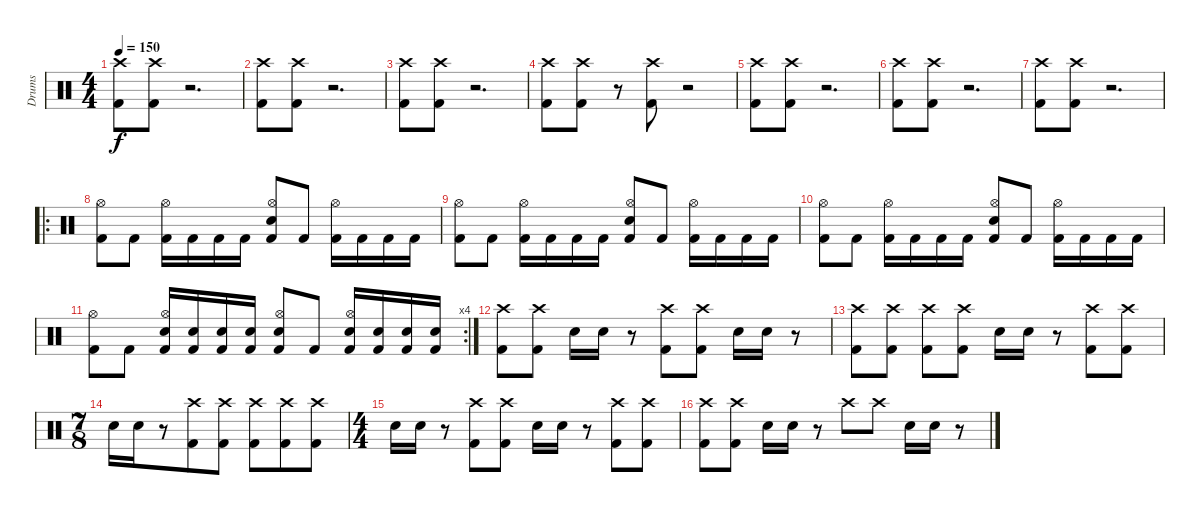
\track ("Drums" "Drums") {instrument percussion}
\staff {score}
\articulation defaults
\ts (4 4)
\tempo 150
\clef neutral
\ks c
("Crash high (hit)" "Kick (hit) 2").8{dy f} ("Crash high (hit)" "Kick (hit) 2").8 r.2{d} |
("Crash high (hit)" "Kick (hit) 2").8 ("Crash high (hit)" "Kick (hit) 2").8 r.2{d} |
("Crash high (hit)" "Kick (hit) 2").8 ("Crash high (hit)" "Kick (hit) 2").8 r.2{d} |
("Crash high (hit)" "Kick (hit) 2").8 ("Crash high (hit)" "Kick (hit) 2").8 r.8 ("Crash high (hit)" "Kick (hit) 2").8 r.2 |
("Crash high (hit)" "Kick (hit) 2").8 ("Crash high (hit)" "Kick (hit) 2").8 r.2{d} |
("Crash high (hit)" "Kick (hit) 2").8 ("Crash high (hit)" "Kick (hit) 2").8 r.2{d} |
("Crash high (hit)" "Kick (hit) 2").8 ("Crash high (hit)" "Kick (hit) 2").8 r.2{d} |
\ro
("Hi-Hat (open)" "Kick (hit) 2").8 "Kick (hit) 2".8 ("Hi-Hat (open)" "Kick (hit) 2").16 "Kick (hit) 2".16 "Kick (hit) 2".16 "Kick (hit) 2".16 ("Hi-Hat (open)" "Snare (hit) 2" "Kick (hit) 2").8 "Kick (hit) 2".8 ("Hi-Hat (open)" "Kick (hit) 2").16 "Kick (hit) 2".16 "Kick (hit) 2".16 "Kick (hit) 2".16 |
("Hi-Hat (open)" "Kick (hit) 2").8 "Kick (hit) 2".8 ("Hi-Hat (open)" "Kick (hit) 2").16 "Kick (hit) 2".16 "Kick (hit) 2".16 "Kick (hit) 2".16 ("Hi-Hat (open)" "Snare (hit) 2" "Kick (hit) 2").8 "Kick (hit) 2".8 ("Hi-Hat (open)" "Kick (hit) 2").16 "Kick (hit) 2".16 "Kick (hit) 2".16 "Kick (hit) 2".16 |
("Hi-Hat (open)" "Kick (hit) 2").8 "Kick (hit) 2".8 ("Hi-Hat (open)" "Kick (hit) 2").16 "Kick (hit) 2".16 "Kick (hit) 2".16 "Kick (hit) 2".16 ("Hi-Hat (open)" "Snare (hit) 2" "Kick (hit) 2").8 "Kick (hit) 2".8 ("Hi-Hat (open)" "Kick (hit) 2").16 "Kick (hit) 2".16 "Kick (hit) 2".16 "Kick (hit) 2".16 |
\rc 4
("Hi-Hat (open)" "Kick (hit) 2").8 "Kick (hit) 2".8 ("Hi-Hat (open)" "Snare (hit) 2" "Kick (hit) 2").16 ("Snare (hit) 2" "Kick (hit) 2").16 ("Snare (hit) 2" "Kick (hit) 2").16 ("Snare (hit) 2" "Kick (hit) 2").16 ("Hi-Hat (open)" "Snare (hit) 2" "Kick (hit) 2").8 "Kick (hit) 2".8 ("Hi-Hat (open)" "Snare (hit) 2" "Kick (hit) 2").16 ("Snare (hit) 2" "Kick (hit) 2").16 ("Snare (hit) 2" "Kick (hit) 2").16 ("Snare (hit) 2" "Kick (hit) 2").16 |
("Crash high (hit)" "Kick (hit) 2").8 ("Crash high (hit)" "Kick (hit) 2").8 "Snare (hit) 2".16 "Snare (hit) 2".16 r.8 ("Crash high (hit)" "Kick (hit) 2").8 ("Crash high (hit)" "Kick (hit) 2").8 "Snare (hit) 2".16 "Snare (hit) 2".16 r.8 |
("Crash high (hit)" "Kick (hit) 2").8 ("Crash high (hit)" "Kick (hit) 2").8 ("Crash high (hit)" "Kick (hit) 2").8 ("Crash high (hit)" "Kick (hit) 2").8 "Snare (hit) 2".16 "Snare (hit) 2".16 r.8 ("Crash high (hit)" "Kick (hit) 2").8 ("Crash high (hit)" "Kick (hit) 2").8 |
\ts (7 8)
"Snare (hit) 2".16 "Snare (hit) 2".16 r.8 ("Crash high (hit)" "Kick (hit) 2").8 ("Crash high (hit)" "Kick (hit) 2").8 ("Crash high (hit)" "Kick (hit) 2").8 ("Crash high (hit)" "Kick (hit) 2").8 ("Crash high (hit)" "Kick (hit) 2").8 |
\ts (4 4)
"Snare (hit) 2".16 "Snare (hit) 2".16 r.8 ("Crash high (hit)" "Kick (hit) 2").8 ("Crash high (hit)" "Kick (hit) 2").8 "Snare (hit) 2".16 "Snare (hit) 2".16 r.8 ("Crash high (hit)" "Kick (hit) 2").8 ("Crash high (hit)" "Kick (hit) 2").8 |
("Crash high (hit)" "Kick (hit) 2").8 ("Crash high (hit)" "Kick (hit) 2").8 "Snare (hit) 2".16 "Snare (hit) 2".16 r.8 "Crash high (hit)".8 "Crash high (hit)".8 "Snare (hit) 2".16 "Snare (hit) 2".16 r.8
